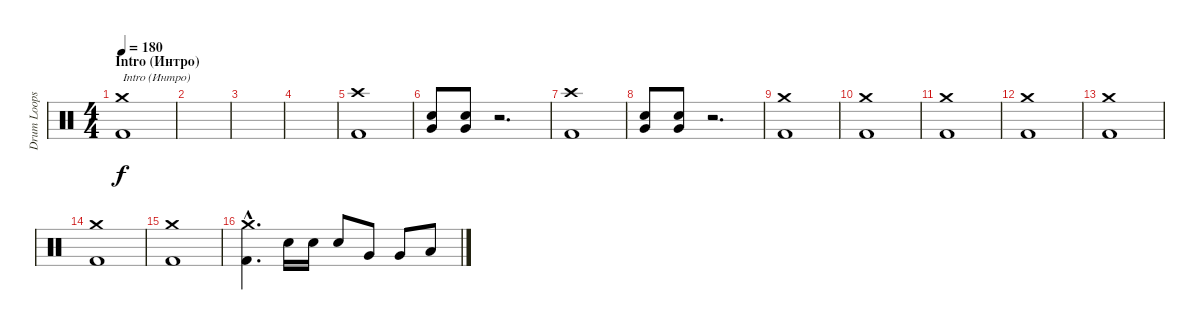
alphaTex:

\track ("Drum Loops (Дурачок)" "Drum Loops") {instrument percussion}
\staff {score}
\articulation defaults
\ts (4 4)
\section ("" "Intro (Интро)")
\tempo 180
\clef neutral
\ks c
("Kick (hit) 2" "Crash medium (hit)").1{txt "Intro (Интро)" dy f} |
|
|
|
("Kick (hit) 2" "Crash high (hit)").1 |
("Snare (hit) 2" "Very Low Tom (hit)").8 ("Snare (hit) 2" "Very Low Tom (hit)").8 r.2{d} |
("Kick (hit) 2" "Crash high (hit)").1 |
("Snare (hit) 2" "Very Low Tom (hit)").8 ("Snare (hit) 2" "Very Low Tom (hit)").8 r.2{d} |
("Kick (hit) 2" "Crash medium (hit)").1 |
("Kick (hit) 2" "Crash medium (hit)").1 |
("Kick (hit) 2" "Crash medium (hit)").1 |
("Kick (hit) 2" "Crash medium (hit)").1 |
("Kick (hit) 2" "Crash medium (hit)").1 |
("Kick (hit) 2" "Crash medium (hit)").1 |
("Kick (hit) 2" "Crash medium (hit)").1 |
("Kick (hit) 2"{hac} "Crash medium (hit)"{hac}).4{d} "Snare (hit) 2".16 "Snare (hit) 2".16 "Snare (hit) 2".8 "Very Low Tom (hit)".8 "Very Low Tom (hit)".8 "Low Floor Tom (hit)".8
